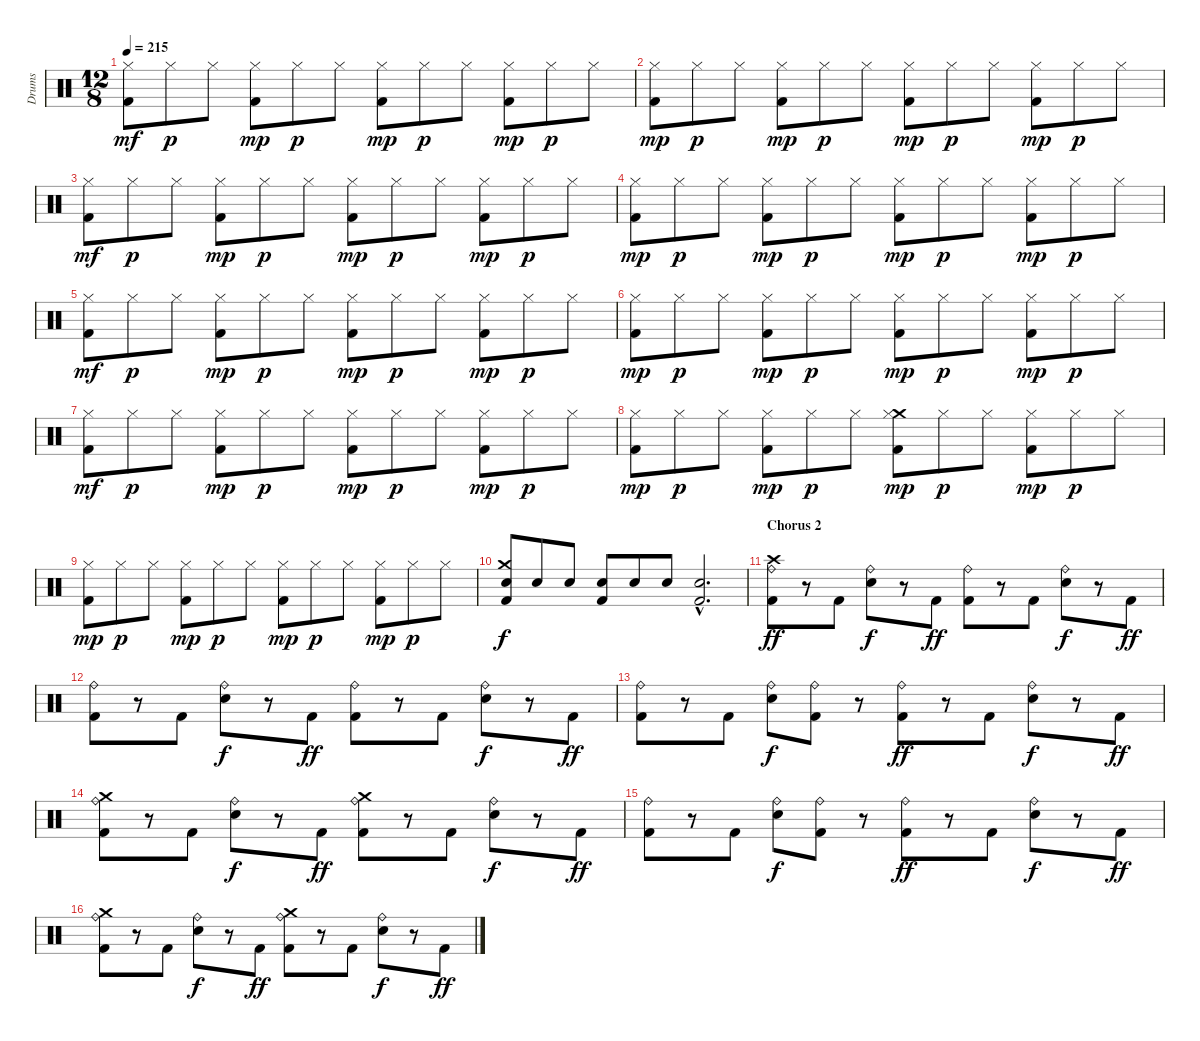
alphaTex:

\track ("Drums" "Drums") {instrument percussion}
\staff {score}
\articulation defaults
\ts (12 8)
\tempo 215
\clef neutral
\ks c
("Hi-Hat (closed)" "Kick (hit) 2").8{dy mf} "Hi-Hat (closed)".8{dy p} "Hi-Hat (closed)".8 ("Hi-Hat (closed)" "Kick (hit) 2").8{dy mp} "Hi-Hat (closed)".8{dy p} "Hi-Hat (closed)".8 ("Hi-Hat (closed)" "Kick (hit) 2").8{dy mp} "Hi-Hat (closed)".8{dy p} "Hi-Hat (closed)".8 ("Hi-Hat (closed)" "Kick (hit) 2").8{dy mp} "Hi-Hat (closed)".8{dy p} "Hi-Hat (closed)".8 |
("Hi-Hat (closed)" "Kick (hit) 2").8{dy mp} "Hi-Hat (closed)".8{dy p} "Hi-Hat (closed)".8 ("Hi-Hat (closed)" "Kick (hit) 2").8{dy mp} "Hi-Hat (closed)".8{dy p} "Hi-Hat (closed)".8 ("Hi-Hat (closed)" "Kick (hit) 2").8{dy mp} "Hi-Hat (closed)".8{dy p} "Hi-Hat (closed)".8 ("Hi-Hat (closed)" "Kick (hit) 2").8{dy mp} "Hi-Hat (closed)".8{dy p} "Hi-Hat (closed)".8 |
("Hi-Hat (closed)" "Kick (hit) 2").8{dy mf} "Hi-Hat (closed)".8{dy p} "Hi-Hat (closed)".8 ("Hi-Hat (closed)" "Kick (hit) 2").8{dy mp} "Hi-Hat (closed)".8{dy p} "Hi-Hat (closed)".8 ("Hi-Hat (closed)" "Kick (hit) 2").8{dy mp} "Hi-Hat (closed)".8{dy p} "Hi-Hat (closed)".8 ("Hi-Hat (closed)" "Kick (hit) 2").8{dy mp} "Hi-Hat (closed)".8{dy p} "Hi-Hat (closed)".8 |
("Hi-Hat (closed)" "Kick (hit) 2").8{dy mp} "Hi-Hat (closed)".8{dy p} "Hi-Hat (closed)".8 ("Hi-Hat (closed)" "Kick (hit) 2").8{dy mp} "Hi-Hat (closed)".8{dy p} "Hi-Hat (closed)".8 ("Hi-Hat (closed)" "Kick (hit) 2").8{dy mp} "Hi-Hat (closed)".8{dy p} "Hi-Hat (closed)".8 ("Hi-Hat (closed)" "Kick (hit) 2").8{dy mp} "Hi-Hat (closed)".8{dy p} "Hi-Hat (closed)".8 |
("Hi-Hat (closed)" "Kick (hit) 2").8{dy mf} "Hi-Hat (closed)".8{dy p} "Hi-Hat (closed)".8 ("Hi-Hat (closed)" "Kick (hit) 2").8{dy mp} "Hi-Hat (closed)".8{dy p} "Hi-Hat (closed)".8 ("Hi-Hat (closed)" "Kick (hit) 2").8{dy mp} "Hi-Hat (closed)".8{dy p} "Hi-Hat (closed)".8 ("Hi-Hat (closed)" "Kick (hit) 2").8{dy mp} "Hi-Hat (closed)".8{dy p} "Hi-Hat (closed)".8 |
("Hi-Hat (closed)" "Kick (hit) 2").8{dy mp} "Hi-Hat (closed)".8{dy p} "Hi-Hat (closed)".8 ("Hi-Hat (closed)" "Kick (hit) 2").8{dy mp} "Hi-Hat (closed)".8{dy p} "Hi-Hat (closed)".8 ("Hi-Hat (closed)" "Kick (hit) 2").8{dy mp} "Hi-Hat (closed)".8{dy p} "Hi-Hat (closed)".8 ("Hi-Hat (closed)" "Kick (hit) 2").8{dy mp} "Hi-Hat (closed)".8{dy p} "Hi-Hat (closed)".8 |
("Hi-Hat (closed)" "Kick (hit) 2").8{dy mf} "Hi-Hat (closed)".8{dy p} "Hi-Hat (closed)".8 ("Hi-Hat (closed)" "Kick (hit) 2").8{dy mp} "Hi-Hat (closed)".8{dy p} "Hi-Hat (closed)".8 ("Hi-Hat (closed)" "Kick (hit) 2").8{dy mp} "Hi-Hat (closed)".8{dy p} "Hi-Hat (closed)".8 ("Hi-Hat (closed)" "Kick (hit) 2").8{dy mp} "Hi-Hat (closed)".8{dy p} "Hi-Hat (closed)".8 |
("Hi-Hat (closed)" "Kick (hit) 2").8{dy mp} "Hi-Hat (closed)".8{dy p} "Hi-Hat (closed)".8 ("Hi-Hat (closed)" "Kick (hit) 2").8{dy mp} "Hi-Hat (closed)".8{dy p} "Hi-Hat (closed)".8 ("Crash medium (hit)" "Hi-Hat (closed)" "Kick (hit) 2").8{dy mp} "Hi-Hat (closed)".8{dy p} "Hi-Hat (closed)".8 ("Hi-Hat (closed)" "Kick (hit) 2").8{dy mp} "Hi-Hat (closed)".8{dy p} "Hi-Hat (closed)".8 |
("Hi-Hat (closed)" "Kick (hit) 2").8{dy mp} "Hi-Hat (closed)".8{dy p} "Hi-Hat (closed)".8 ("Hi-Hat (closed)" "Kick (hit) 2").8{dy mp} "Hi-Hat (closed)".8{dy p} "Hi-Hat (closed)".8 ("Hi-Hat (closed)" "Kick (hit) 2").8{dy mp} "Hi-Hat (closed)".8{dy p} "Hi-Hat (closed)".8 ("Hi-Hat (closed)" "Kick (hit) 2").8{dy mp} "Hi-Hat (closed)".8{dy p} "Hi-Hat (closed)".8 |
("Crash medium (hit)" "Snare (hit) 2" "Kick (hit) 2").8{dy f} "Snare (hit) 2".8 "Snare (hit) 2".8 ("Snare (hit) 2" "Kick (hit) 2").8 "Snare (hit) 2".8 "Snare (hit) 2".8 ("Snare (hit) 2"{hac} "Kick (hit) 2"{hac}).2{d} |
\section ("" "Chorus 2")
("Crash high (hit)" "Ride (bell)" "Kick (hit) 2").8{dy ff} r.8 "Kick (hit) 2".8 ("Ride (bell)" "Snare (hit) 2").8{dy f} r.8 "Kick (hit) 2".8{dy ff} ("Ride (bell)" "Kick (hit) 2").8 r.8 "Kick (hit) 2".8 ("Ride (bell)" "Snare (hit) 2").8{dy f} r.8 "Kick (hit) 2".8{dy ff} |
("Ride (bell)" "Kick (hit) 2").8 r.8 "Kick (hit) 2".8 ("Ride (bell)" "Snare (hit) 2").8{dy f} r.8 "Kick (hit) 2".8{dy ff} ("Ride (bell)" "Kick (hit) 2").8 r.8 "Kick (hit) 2".8 ("Ride (bell)" "Snare (hit) 2").8{dy f} r.8 "Kick (hit) 2".8{dy ff} |
("Ride (bell)" "Kick (hit) 2").8 r.8 "Kick (hit) 2".8 ("Ride (bell)" "Snare (hit) 2").8{dy f} ("Ride (bell)" "Kick (hit) 2").8 r.8 ("Ride (bell)" "Kick (hit) 2").8{dy ff} r.8 "Kick (hit) 2".8 ("Ride (bell)" "Snare (hit) 2").8{dy f} r.8 "Kick (hit) 2".8{dy ff} |
("Crash medium (hit)" "Ride (bell)" "Kick (hit) 2").8 r.8 "Kick (hit) 2".8 ("Ride (bell)" "Snare (hit) 2").8{dy f} r.8 "Kick (hit) 2".8{dy ff} ("Crash medium (hit)" "Ride (bell)" "Kick (hit) 2").8 r.8 "Kick (hit) 2".8 ("Ride (bell)" "Snare (hit) 2").8{dy f} r.8 "Kick (hit) 2".8{dy ff} |
("Ride (bell)" "Kick (hit) 2").8 r.8 "Kick (hit) 2".8 ("Ride (bell)" "Snare (hit) 2").8{dy f} ("Ride (bell)" "Kick (hit) 2").8 r.8 ("Ride (bell)" "Kick (hit) 2").8{dy ff} r.8 "Kick (hit) 2".8 ("Ride (bell)" "Snare (hit) 2").8{dy f} r.8 "Kick (hit) 2".8{dy ff} |
("Crash medium (hit)" "Ride (bell)" "Kick (hit) 2").8 r.8 "Kick (hit) 2".8 ("Ride (bell)" "Snare (hit) 2").8{dy f} r.8 "Kick (hit) 2".8{dy ff} ("Crash medium (hit)" "Ride (bell)" "Kick (hit) 2").8 r.8 "Kick (hit) 2".8 ("Ride (bell)" "Snare (hit) 2").8{dy f} r.8 "Kick (hit) 2".8{dy ff}
